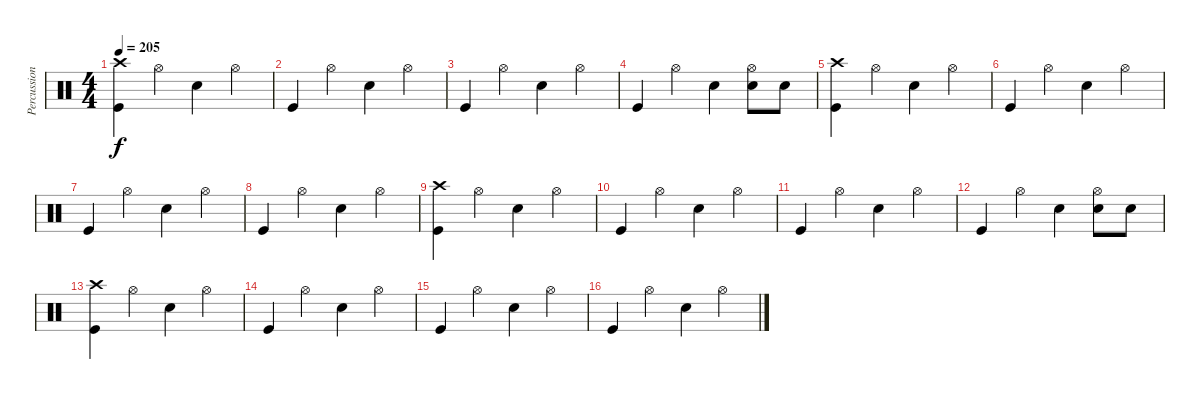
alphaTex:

\track ("Percussion" "Percussion") {instrument percussion}
\staff {score}
\articulation defaults
\ts (4 4)
\tempo 205
\clef neutral
\ks c
("Crash high (hit)" "Kick (hit)").4{dy f} "Hi-Hat (open)".4 "Snare (hit) 2".4 "Hi-Hat (open)".4 |
"Kick (hit)".4 "Hi-Hat (open)".4 "Snare (hit) 2".4 "Hi-Hat (open)".4 |
"Kick (hit)".4 "Hi-Hat (open)".4 "Snare (hit) 2".4 "Hi-Hat (open)".4 |
"Kick (hit)".4 "Hi-Hat (open)".4 "Snare (hit) 2".4 ("Hi-Hat (open)" "Snare (hit) 2").8 "Snare (hit) 2".8 |
("Crash high (hit)" "Kick (hit)").4 "Hi-Hat (open)".4 "Snare (hit) 2".4 "Hi-Hat (open)".4 |
"Kick (hit)".4 "Hi-Hat (open)".4 "Snare (hit) 2".4 "Hi-Hat (open)".4 |
"Kick (hit)".4 "Hi-Hat (open)".4 "Snare (hit) 2".4 "Hi-Hat (open)".4 |
"Kick (hit)".4 "Hi-Hat (open)".4 "Snare (hit) 2".4 "Hi-Hat (open)".4 |
("Crash high (hit)" "Kick (hit)").4 "Hi-Hat (open)".4 "Snare (hit) 2".4 "Hi-Hat (open)".4 |
"Kick (hit)".4 "Hi-Hat (open)".4 "Snare (hit) 2".4 "Hi-Hat (open)".4 |
"Kick (hit)".4 "Hi-Hat (open)".4 "Snare (hit) 2".4 "Hi-Hat (open)".4 |
"Kick (hit)".4 "Hi-Hat (open)".4 "Snare (hit) 2".4 ("Hi-Hat (open)" "Snare (hit) 2").8 "Snare (hit) 2".8 |
("Crash high (hit)" "Kick (hit)").4 "Hi-Hat (open)".4 "Snare (hit) 2".4 "Hi-Hat (open)".4 |
"Kick (hit)".4 "Hi-Hat (open)".4 "Snare (hit) 2".4 "Hi-Hat (open)".4 |
"Kick (hit)".4 "Hi-Hat (open)".4 "Snare (hit) 2".4 "Hi-Hat (open)".4 |
"Kick (hit)".4 "Hi-Hat (open)".4 "Snare (hit) 2".4 "Hi-Hat (open)".4
